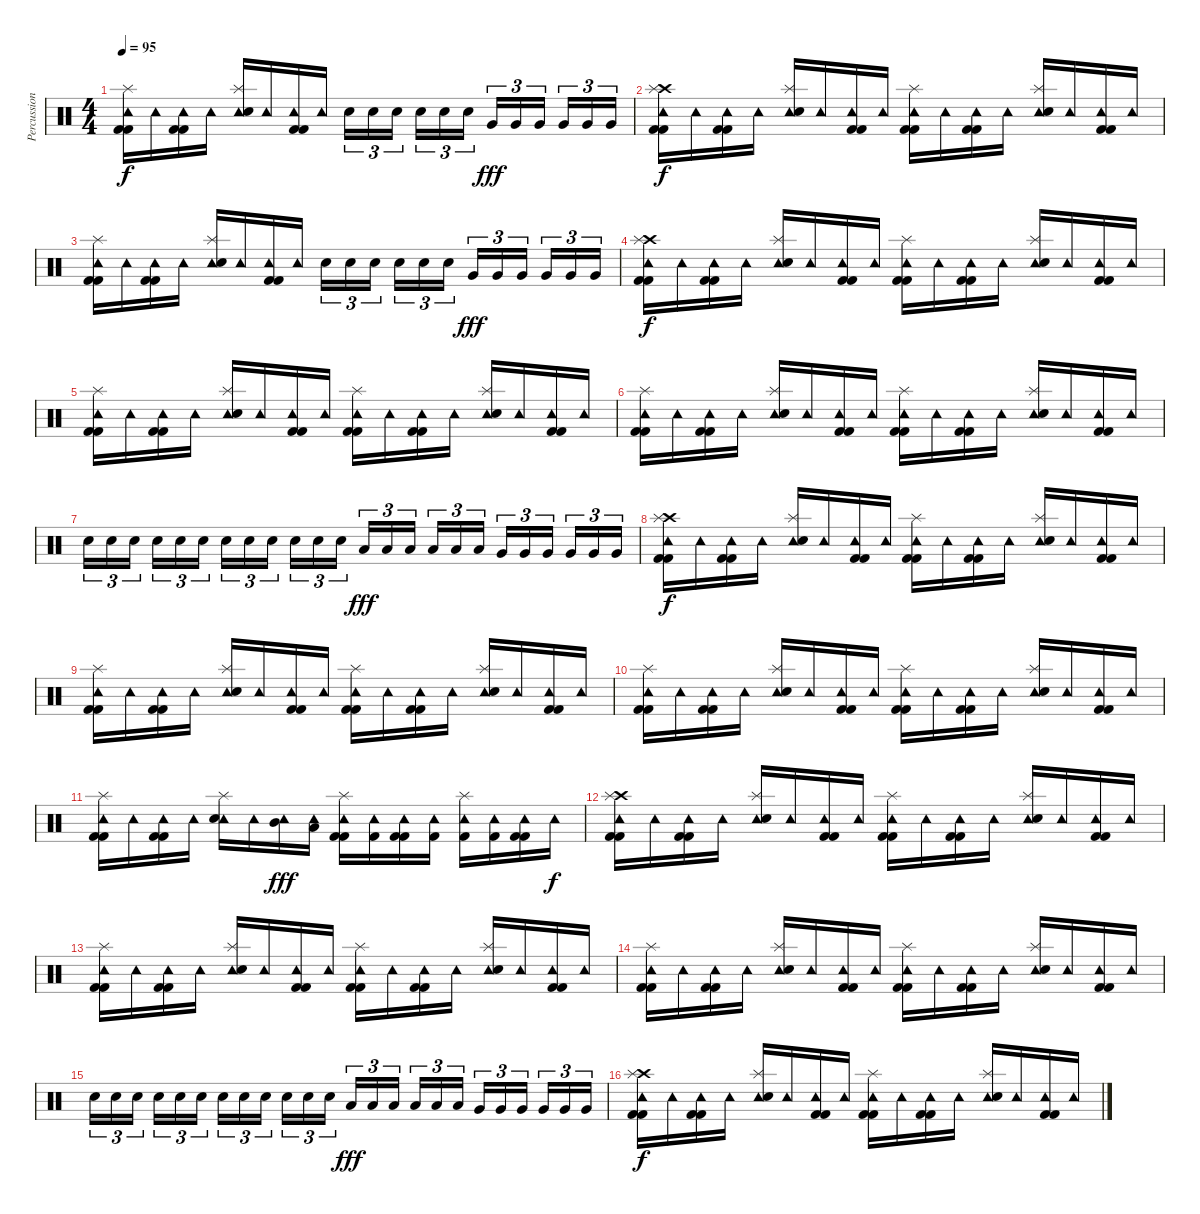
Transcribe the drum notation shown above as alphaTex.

\track ("Percussion" "Percussion") {instrument percussion}
\staff {score}
\articulation defaults
\ts (4 4)
\tempo 95
\clef neutral
\ks c
("Tambourine (hit)" "Kick (hit) 2" "Kick (hit) 2" "Splash (hit)").16{dy f} "Tambourine (hit)".16 ("Tambourine (hit)" "Kick (hit) 2" "Kick (hit) 2").16 "Tambourine (hit)".16 ("Tambourine (hit)" "Electric Snare (hit)" "Splash (hit)").16 "Tambourine (hit)".16 ("Tambourine (hit)" "Kick (hit) 2" "Kick (hit) 2").16 "Tambourine (hit)".16 "Electric Snare (hit)".16{tu (3 2)} "Electric Snare (hit)".16{tu (3 2)} "Electric Snare (hit)".16{tu (3 2)} "Electric Snare (hit)".16{tu (3 2)} "Electric Snare (hit)".16{tu (3 2)} "Electric Snare (hit)".16{tu (3 2)} "Very Low Tom (hit)".16{tu (3 2) dy fff} "Very Low Tom (hit)".16{tu (3 2)} "Very Low Tom (hit)".16{tu (3 2)} "Very Low Tom (hit)".16{tu (3 2)} "Very Low Tom (hit)".16{tu (3 2)} "Very Low Tom (hit)".16{tu (3 2)} |
("Tambourine (hit)" "Crash high (hit)" "Kick (hit) 2" "Kick (hit) 2" "Splash (hit)").16{dy f} "Tambourine (hit)".16 ("Tambourine (hit)" "Kick (hit) 2" "Kick (hit) 2").16 "Tambourine (hit)".16 ("Tambourine (hit)" "Electric Snare (hit)" "Splash (hit)").16 "Tambourine (hit)".16 ("Tambourine (hit)" "Kick (hit) 2" "Kick (hit) 2").16 "Tambourine (hit)".16 ("Tambourine (hit)" "Kick (hit) 2" "Kick (hit) 2" "Splash (hit)").16 "Tambourine (hit)".16 ("Tambourine (hit)" "Kick (hit) 2" "Kick (hit) 2").16 "Tambourine (hit)".16 ("Tambourine (hit)" "Electric Snare (hit)" "Splash (hit)").16 "Tambourine (hit)".16 ("Tambourine (hit)" "Kick (hit) 2" "Kick (hit) 2").16 "Tambourine (hit)".16 |
("Tambourine (hit)" "Kick (hit) 2" "Kick (hit) 2" "Splash (hit)").16 "Tambourine (hit)".16 ("Tambourine (hit)" "Kick (hit) 2" "Kick (hit) 2").16 "Tambourine (hit)".16 ("Tambourine (hit)" "Electric Snare (hit)" "Splash (hit)").16 "Tambourine (hit)".16 ("Tambourine (hit)" "Kick (hit) 2" "Kick (hit) 2").16 "Tambourine (hit)".16 "Electric Snare (hit)".16{tu (3 2)} "Electric Snare (hit)".16{tu (3 2)} "Electric Snare (hit)".16{tu (3 2)} "Electric Snare (hit)".16{tu (3 2)} "Electric Snare (hit)".16{tu (3 2)} "Electric Snare (hit)".16{tu (3 2)} "Very Low Tom (hit)".16{tu (3 2) dy fff} "Very Low Tom (hit)".16{tu (3 2)} "Very Low Tom (hit)".16{tu (3 2)} "Very Low Tom (hit)".16{tu (3 2)} "Very Low Tom (hit)".16{tu (3 2)} "Very Low Tom (hit)".16{tu (3 2)} |
("Tambourine (hit)" "Crash high (hit)" "Kick (hit) 2" "Kick (hit) 2" "Splash (hit)").16{dy f} "Tambourine (hit)".16 ("Tambourine (hit)" "Kick (hit) 2" "Kick (hit) 2").16 "Tambourine (hit)".16 ("Tambourine (hit)" "Electric Snare (hit)" "Splash (hit)").16 "Tambourine (hit)".16 ("Tambourine (hit)" "Kick (hit) 2" "Kick (hit) 2").16 "Tambourine (hit)".16 ("Tambourine (hit)" "Kick (hit) 2" "Kick (hit) 2" "Splash (hit)").16 "Tambourine (hit)".16 ("Tambourine (hit)" "Kick (hit) 2" "Kick (hit) 2").16 "Tambourine (hit)".16 ("Tambourine (hit)" "Electric Snare (hit)" "Splash (hit)").16 "Tambourine (hit)".16 ("Tambourine (hit)" "Kick (hit) 2" "Kick (hit) 2").16 "Tambourine (hit)".16 |
("Tambourine (hit)" "Kick (hit) 2" "Kick (hit) 2" "Splash (hit)").16 "Tambourine (hit)".16 ("Tambourine (hit)" "Kick (hit) 2" "Kick (hit) 2").16 "Tambourine (hit)".16 ("Tambourine (hit)" "Electric Snare (hit)" "Splash (hit)").16 "Tambourine (hit)".16 ("Tambourine (hit)" "Kick (hit) 2" "Kick (hit) 2").16 "Tambourine (hit)".16 ("Tambourine (hit)" "Kick (hit) 2" "Kick (hit) 2" "Splash (hit)").16 "Tambourine (hit)".16 ("Tambourine (hit)" "Kick (hit) 2" "Kick (hit) 2").16 "Tambourine (hit)".16 ("Tambourine (hit)" "Electric Snare (hit)" "Splash (hit)").16 "Tambourine (hit)".16 ("Tambourine (hit)" "Kick (hit) 2" "Kick (hit) 2").16 "Tambourine (hit)".16 |
("Tambourine (hit)" "Kick (hit) 2" "Kick (hit) 2" "Splash (hit)").16 "Tambourine (hit)".16 ("Tambourine (hit)" "Kick (hit) 2" "Kick (hit) 2").16 "Tambourine (hit)".16 ("Tambourine (hit)" "Electric Snare (hit)" "Splash (hit)").16 "Tambourine (hit)".16 ("Tambourine (hit)" "Kick (hit) 2" "Kick (hit) 2").16 "Tambourine (hit)".16 ("Tambourine (hit)" "Kick (hit) 2" "Kick (hit) 2" "Splash (hit)").16 "Tambourine (hit)".16 ("Tambourine (hit)" "Kick (hit) 2" "Kick (hit) 2").16 "Tambourine (hit)".16 ("Tambourine (hit)" "Electric Snare (hit)" "Splash (hit)").16 "Tambourine (hit)".16 ("Tambourine (hit)" "Kick (hit) 2" "Kick (hit) 2").16 "Tambourine (hit)".16 |
"Electric Snare (hit)".16{tu (3 2)} "Electric Snare (hit)".16{tu (3 2)} "Electric Snare (hit)".16{tu (3 2)} "Electric Snare (hit)".16{tu (3 2)} "Electric Snare (hit)".16{tu (3 2)} "Electric Snare (hit)".16{tu (3 2)} "Snare (hit) 2".16{tu (3 2)} "Snare (hit) 2".16{tu (3 2)} "Snare (hit) 2".16{tu (3 2)} "Snare (hit) 2".16{tu (3 2)} "Snare (hit) 2".16{tu (3 2)} "Snare (hit) 2".16{tu (3 2)} "Low Tom (hit)".16{tu (3 2) dy fff} "Low Tom (hit)".16{tu (3 2)} "Low Tom (hit)".16{tu (3 2)} "Low Tom (hit)".16{tu (3 2)} "Low Tom (hit)".16{tu (3 2)} "Low Tom (hit)".16{tu (3 2)} "Very Low Tom (hit)".16{tu (3 2)} "Very Low Tom (hit)".16{tu (3 2)} "Very Low Tom (hit)".16{tu (3 2)} "Very Low Tom (hit)".16{tu (3 2)} "Very Low Tom (hit)".16{tu (3 2)} "Very Low Tom (hit)".16{tu (3 2)} |
("Tambourine (hit)" "Crash high (hit)" "Kick (hit) 2" "Kick (hit) 2" "Splash (hit)").16{dy f} "Tambourine (hit)".16 ("Tambourine (hit)" "Kick (hit) 2" "Kick (hit) 2").16 "Tambourine (hit)".16 ("Tambourine (hit)" "Electric Snare (hit)" "Splash (hit)").16 "Tambourine (hit)".16 ("Tambourine (hit)" "Kick (hit) 2" "Kick (hit) 2").16 "Tambourine (hit)".16 ("Tambourine (hit)" "Kick (hit) 2" "Kick (hit) 2" "Splash (hit)").16 "Tambourine (hit)".16 ("Tambourine (hit)" "Kick (hit) 2" "Kick (hit) 2").16 "Tambourine (hit)".16 ("Tambourine (hit)" "Electric Snare (hit)" "Splash (hit)").16 "Tambourine (hit)".16 ("Tambourine (hit)" "Kick (hit) 2" "Kick (hit) 2").16 "Tambourine (hit)".16 |
("Tambourine (hit)" "Kick (hit) 2" "Kick (hit) 2" "Splash (hit)").16 "Tambourine (hit)".16 ("Tambourine (hit)" "Kick (hit) 2" "Kick (hit) 2").16 "Tambourine (hit)".16 ("Tambourine (hit)" "Electric Snare (hit)" "Splash (hit)").16 "Tambourine (hit)".16 ("Tambourine (hit)" "Kick (hit) 2" "Kick (hit) 2").16 "Tambourine (hit)".16 ("Tambourine (hit)" "Kick (hit) 2" "Kick (hit) 2" "Splash (hit)").16 "Tambourine (hit)".16 ("Tambourine (hit)" "Kick (hit) 2" "Kick (hit) 2").16 "Tambourine (hit)".16 ("Tambourine (hit)" "Electric Snare (hit)" "Splash (hit)").16 "Tambourine (hit)".16 ("Tambourine (hit)" "Kick (hit) 2" "Kick (hit) 2").16 "Tambourine (hit)".16 |
("Tambourine (hit)" "Kick (hit) 2" "Kick (hit) 2" "Splash (hit)").16 "Tambourine (hit)".16 ("Tambourine (hit)" "Kick (hit) 2" "Kick (hit) 2").16 "Tambourine (hit)".16 ("Tambourine (hit)" "Electric Snare (hit)" "Splash (hit)").16 "Tambourine (hit)".16 ("Tambourine (hit)" "Kick (hit) 2" "Kick (hit) 2").16 "Tambourine (hit)".16 ("Tambourine (hit)" "Kick (hit) 2" "Kick (hit) 2" "Splash (hit)").16 "Tambourine (hit)".16 ("Tambourine (hit)" "Kick (hit) 2" "Kick (hit) 2").16 "Tambourine (hit)".16 ("Tambourine (hit)" "Electric Snare (hit)" "Splash (hit)").16 "Tambourine (hit)".16 ("Tambourine (hit)" "Kick (hit) 2" "Kick (hit) 2").16 "Tambourine (hit)".16 |
("Tambourine (hit)" "Kick (hit) 2" "Kick (hit) 2" "Splash (hit)").16 "Tambourine (hit)".16 ("Tambourine (hit)" "Kick (hit) 2" "Kick (hit) 2").16 "Tambourine (hit)".16 ("Tambourine (hit)" "Electric Snare (hit)" "Splash (hit)").16 "Tambourine (hit)".16 ("Tambourine (hit)" "Mid Tom (hit)").16{dy fff} ("Tambourine (hit)" "Low Tom (hit)").16 ("Tambourine (hit)" "Kick (hit) 2" "Kick (hit) 2" "Splash (hit)").16 ("Tambourine (hit)" "Kick (hit) 2").16 ("Tambourine (hit)" "Kick (hit) 2" "Kick (hit) 2").16 ("Tambourine (hit)" "Kick (hit) 2").16 ("Tambourine (hit)" "Kick (hit) 2" "Splash (hit)").16 ("Tambourine (hit)" "Kick (hit) 2").16 ("Tambourine (hit)" "Kick (hit) 2" "Kick (hit) 2").16 "Tambourine (hit)".16{dy f} |
("Tambourine (hit)" "Crash high (hit)" "Kick (hit) 2" "Kick (hit) 2" "Splash (hit)").16 "Tambourine (hit)".16 ("Tambourine (hit)" "Kick (hit) 2" "Kick (hit) 2").16 "Tambourine (hit)".16 ("Tambourine (hit)" "Electric Snare (hit)" "Splash (hit)").16 "Tambourine (hit)".16 ("Tambourine (hit)" "Kick (hit) 2" "Kick (hit) 2").16 "Tambourine (hit)".16 ("Tambourine (hit)" "Kick (hit) 2" "Kick (hit) 2" "Splash (hit)").16 "Tambourine (hit)".16 ("Tambourine (hit)" "Kick (hit) 2" "Kick (hit) 2").16 "Tambourine (hit)".16 ("Tambourine (hit)" "Electric Snare (hit)" "Splash (hit)").16 "Tambourine (hit)".16 ("Tambourine (hit)" "Kick (hit) 2" "Kick (hit) 2").16 "Tambourine (hit)".16 |
("Tambourine (hit)" "Kick (hit) 2" "Kick (hit) 2" "Splash (hit)").16 "Tambourine (hit)".16 ("Tambourine (hit)" "Kick (hit) 2" "Kick (hit) 2").16 "Tambourine (hit)".16 ("Tambourine (hit)" "Electric Snare (hit)" "Splash (hit)").16 "Tambourine (hit)".16 ("Tambourine (hit)" "Kick (hit) 2" "Kick (hit) 2").16 "Tambourine (hit)".16 ("Tambourine (hit)" "Kick (hit) 2" "Kick (hit) 2" "Splash (hit)").16 "Tambourine (hit)".16 ("Tambourine (hit)" "Kick (hit) 2" "Kick (hit) 2").16 "Tambourine (hit)".16 ("Tambourine (hit)" "Electric Snare (hit)" "Splash (hit)").16 "Tambourine (hit)".16 ("Tambourine (hit)" "Kick (hit) 2" "Kick (hit) 2").16 "Tambourine (hit)".16 |
("Tambourine (hit)" "Kick (hit) 2" "Kick (hit) 2" "Splash (hit)").16 "Tambourine (hit)".16 ("Tambourine (hit)" "Kick (hit) 2" "Kick (hit) 2").16 "Tambourine (hit)".16 ("Tambourine (hit)" "Electric Snare (hit)" "Splash (hit)").16 "Tambourine (hit)".16 ("Tambourine (hit)" "Kick (hit) 2" "Kick (hit) 2").16 "Tambourine (hit)".16 ("Tambourine (hit)" "Kick (hit) 2" "Kick (hit) 2" "Splash (hit)").16 "Tambourine (hit)".16 ("Tambourine (hit)" "Kick (hit) 2" "Kick (hit) 2").16 "Tambourine (hit)".16 ("Tambourine (hit)" "Electric Snare (hit)" "Splash (hit)").16 "Tambourine (hit)".16 ("Tambourine (hit)" "Kick (hit) 2" "Kick (hit) 2").16 "Tambourine (hit)".16 |
"Electric Snare (hit)".16{tu (3 2)} "Electric Snare (hit)".16{tu (3 2)} "Electric Snare (hit)".16{tu (3 2)} "Electric Snare (hit)".16{tu (3 2)} "Electric Snare (hit)".16{tu (3 2)} "Electric Snare (hit)".16{tu (3 2)} "Snare (hit) 2".16{tu (3 2)} "Snare (hit) 2".16{tu (3 2)} "Snare (hit) 2".16{tu (3 2)} "Snare (hit) 2".16{tu (3 2)} "Snare (hit) 2".16{tu (3 2)} "Snare (hit) 2".16{tu (3 2)} "Low Tom (hit)".16{tu (3 2) dy fff} "Low Tom (hit)".16{tu (3 2)} "Low Tom (hit)".16{tu (3 2)} "Low Tom (hit)".16{tu (3 2)} "Low Tom (hit)".16{tu (3 2)} "Low Tom (hit)".16{tu (3 2)} "Very Low Tom (hit)".16{tu (3 2)} "Very Low Tom (hit)".16{tu (3 2)} "Very Low Tom (hit)".16{tu (3 2)} "Very Low Tom (hit)".16{tu (3 2)} "Very Low Tom (hit)".16{tu (3 2)} "Very Low Tom (hit)".16{tu (3 2)} |
("Tambourine (hit)" "Crash high (hit)" "Kick (hit) 2" "Kick (hit) 2" "Splash (hit)").16{dy f} "Tambourine (hit)".16 ("Tambourine (hit)" "Kick (hit) 2" "Kick (hit) 2").16 "Tambourine (hit)".16 ("Tambourine (hit)" "Electric Snare (hit)" "Splash (hit)").16 "Tambourine (hit)".16 ("Tambourine (hit)" "Kick (hit) 2" "Kick (hit) 2").16 "Tambourine (hit)".16 ("Tambourine (hit)" "Kick (hit) 2" "Kick (hit) 2" "Splash (hit)").16 "Tambourine (hit)".16 ("Tambourine (hit)" "Kick (hit) 2" "Kick (hit) 2").16 "Tambourine (hit)".16 ("Tambourine (hit)" "Electric Snare (hit)" "Splash (hit)").16 "Tambourine (hit)".16 ("Tambourine (hit)" "Kick (hit) 2" "Kick (hit) 2").16 "Tambourine (hit)".16
